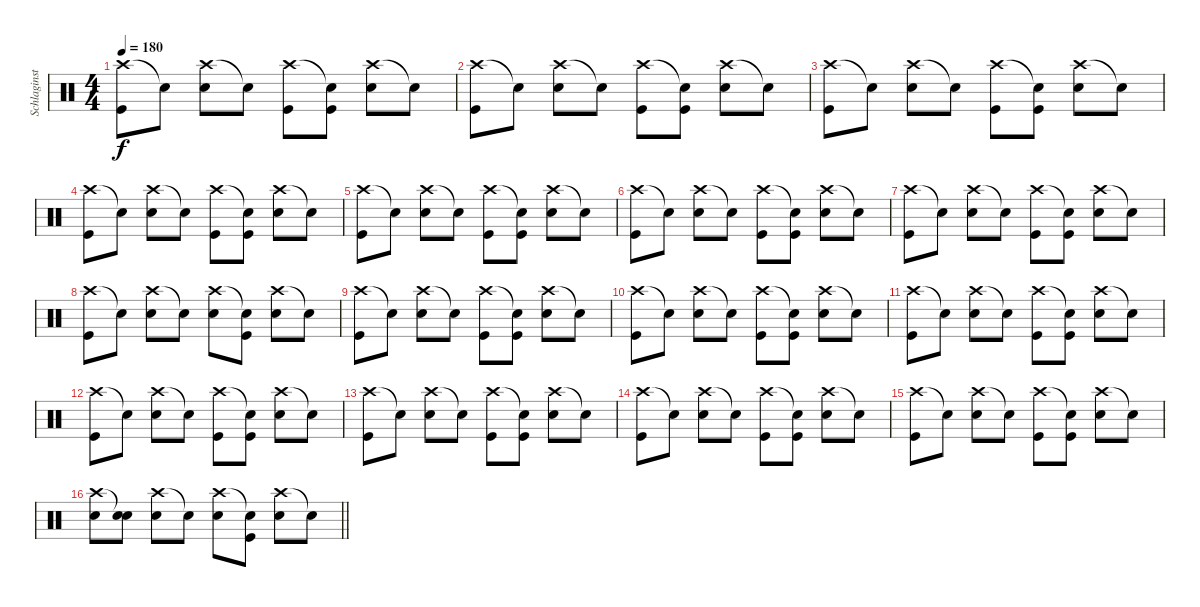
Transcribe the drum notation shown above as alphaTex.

\track ("Schlaginstrumente - Auswahl" "Schlaginst") {instrument percussion}
\staff {score}
\articulation defaults
\ts (4 4)
\tempo 180
\clef neutral
\ks c
("Crash high (hit)" "Kick (hit)").8{dy f} "Snare (hit)"{t}.8 ("Crash high (hit)" "Electric Snare (hit)").8 "Snare (hit)"{t}.8 ("Crash high (hit)" "Kick (hit)").8 ("Snare (hit)"{t} "Kick (hit)").8 ("Crash high (hit)" "Electric Snare (hit)").8 "Snare (hit)"{t}.8 |
("Crash high (hit)" "Kick (hit)").8 "Snare (hit)"{t}.8 ("Crash high (hit)" "Electric Snare (hit)").8 "Snare (hit)"{t}.8 ("Crash high (hit)" "Kick (hit)").8 ("Snare (hit)"{t} "Kick (hit)").8 ("Crash high (hit)" "Electric Snare (hit)").8 "Snare (hit)"{t}.8 |
("Crash high (hit)" "Kick (hit)").8 "Snare (hit)"{t}.8 ("Crash high (hit)" "Electric Snare (hit)").8 "Snare (hit)"{t}.8 ("Crash high (hit)" "Kick (hit)").8 ("Snare (hit)"{t} "Kick (hit)").8 ("Crash high (hit)" "Electric Snare (hit)").8 "Snare (hit)"{t}.8 |
("Crash high (hit)" "Kick (hit)").8 "Snare (hit)"{t}.8 ("Crash high (hit)" "Electric Snare (hit)").8 "Snare (hit)"{t}.8 ("Crash high (hit)" "Kick (hit)").8 ("Snare (hit)"{t} "Kick (hit)").8 ("Crash high (hit)" "Electric Snare (hit)").8 "Snare (hit)"{t}.8 |
("Crash high (hit)" "Kick (hit)").8 "Snare (hit)"{t}.8 ("Crash high (hit)" "Electric Snare (hit)").8 "Snare (hit)"{t}.8 ("Crash high (hit)" "Kick (hit)").8 ("Snare (hit)"{t} "Kick (hit)").8 ("Crash high (hit)" "Electric Snare (hit)").8 "Snare (hit)"{t}.8 |
("Crash high (hit)" "Kick (hit)").8 "Snare (hit)"{t}.8 ("Crash high (hit)" "Electric Snare (hit)").8 "Snare (hit)"{t}.8 ("Crash high (hit)" "Kick (hit)").8 ("Snare (hit)"{t} "Kick (hit)").8 ("Crash high (hit)" "Electric Snare (hit)").8 "Snare (hit)"{t}.8 |
("Crash high (hit)" "Kick (hit)").8 "Snare (hit)"{t}.8 ("Crash high (hit)" "Electric Snare (hit)").8 "Snare (hit)"{t}.8 ("Crash high (hit)" "Kick (hit)").8 ("Snare (hit)"{t} "Kick (hit)").8 ("Crash high (hit)" "Electric Snare (hit)").8 "Snare (hit)"{t}.8 |
("Crash high (hit)" "Kick (hit)").8 "Snare (hit)"{t}.8 ("Crash high (hit)" "Electric Snare (hit)").8 "Snare (hit)"{t}.8 ("Crash high (hit)" "Electric Snare (hit)").8 ("Snare (hit)"{t} "Kick (hit)").8 ("Crash high (hit)" "Electric Snare (hit)").8 "Snare (hit)"{t}.8 |
("Crash high (hit)" "Kick (hit)").8 "Snare (hit)"{t}.8 ("Crash high (hit)" "Electric Snare (hit)").8 "Snare (hit)"{t}.8 ("Crash high (hit)" "Kick (hit)").8 ("Snare (hit)"{t} "Kick (hit)").8 ("Crash high (hit)" "Electric Snare (hit)").8 "Snare (hit)"{t}.8 |
("Crash high (hit)" "Kick (hit)").8 "Snare (hit)"{t}.8 ("Crash high (hit)" "Electric Snare (hit)").8 "Snare (hit)"{t}.8 ("Crash high (hit)" "Kick (hit)").8 ("Snare (hit)"{t} "Kick (hit)").8 ("Crash high (hit)" "Electric Snare (hit)").8 "Snare (hit)"{t}.8 |
("Crash high (hit)" "Kick (hit)").8 "Snare (hit)"{t}.8 ("Crash high (hit)" "Electric Snare (hit)").8 "Snare (hit)"{t}.8 ("Crash high (hit)" "Kick (hit)").8 ("Snare (hit)"{t} "Kick (hit)").8 ("Crash high (hit)" "Electric Snare (hit)").8 "Snare (hit)"{t}.8 |
("Crash high (hit)" "Kick (hit)").8 "Snare (hit)"{t}.8 ("Crash high (hit)" "Electric Snare (hit)").8 "Snare (hit)"{t}.8 ("Crash high (hit)" "Kick (hit)").8 ("Snare (hit)"{t} "Kick (hit)").8 ("Crash high (hit)" "Electric Snare (hit)").8 "Snare (hit)"{t}.8 |
("Crash high (hit)" "Kick (hit)").8 "Snare (hit)"{t}.8 ("Crash high (hit)" "Electric Snare (hit)").8 "Snare (hit)"{t}.8 ("Crash high (hit)" "Kick (hit)").8 ("Snare (hit)"{t} "Kick (hit)").8 ("Crash high (hit)" "Electric Snare (hit)").8 "Snare (hit)"{t}.8 |
("Crash high (hit)" "Kick (hit)").8 "Snare (hit)"{t}.8 ("Crash high (hit)" "Electric Snare (hit)").8 "Snare (hit)"{t}.8 ("Crash high (hit)" "Kick (hit)").8 ("Snare (hit)"{t} "Kick (hit)").8 ("Crash high (hit)" "Electric Snare (hit)").8 "Snare (hit)"{t}.8 |
("Crash high (hit)" "Kick (hit)").8 "Snare (hit)"{t}.8 ("Crash high (hit)" "Electric Snare (hit)").8 "Snare (hit)"{t}.8 ("Crash high (hit)" "Kick (hit)").8 ("Snare (hit)"{t} "Kick (hit)").8 ("Crash high (hit)" "Electric Snare (hit)").8 "Snare (hit)"{t}.8 |
\barLineRight lightlight
("Crash high (hit)" "Electric Snare (hit)").8 ("Snare (hit)"{t} "Electric Snare (hit)").8 ("Crash high (hit)" "Electric Snare (hit)").8 "Snare (hit)"{t}.8 ("Crash high (hit)" "Electric Snare (hit)").8 ("Snare (hit)"{t} "Kick (hit)").8 ("Crash high (hit)" "Electric Snare (hit)").8 "Snare (hit)"{t}.8
